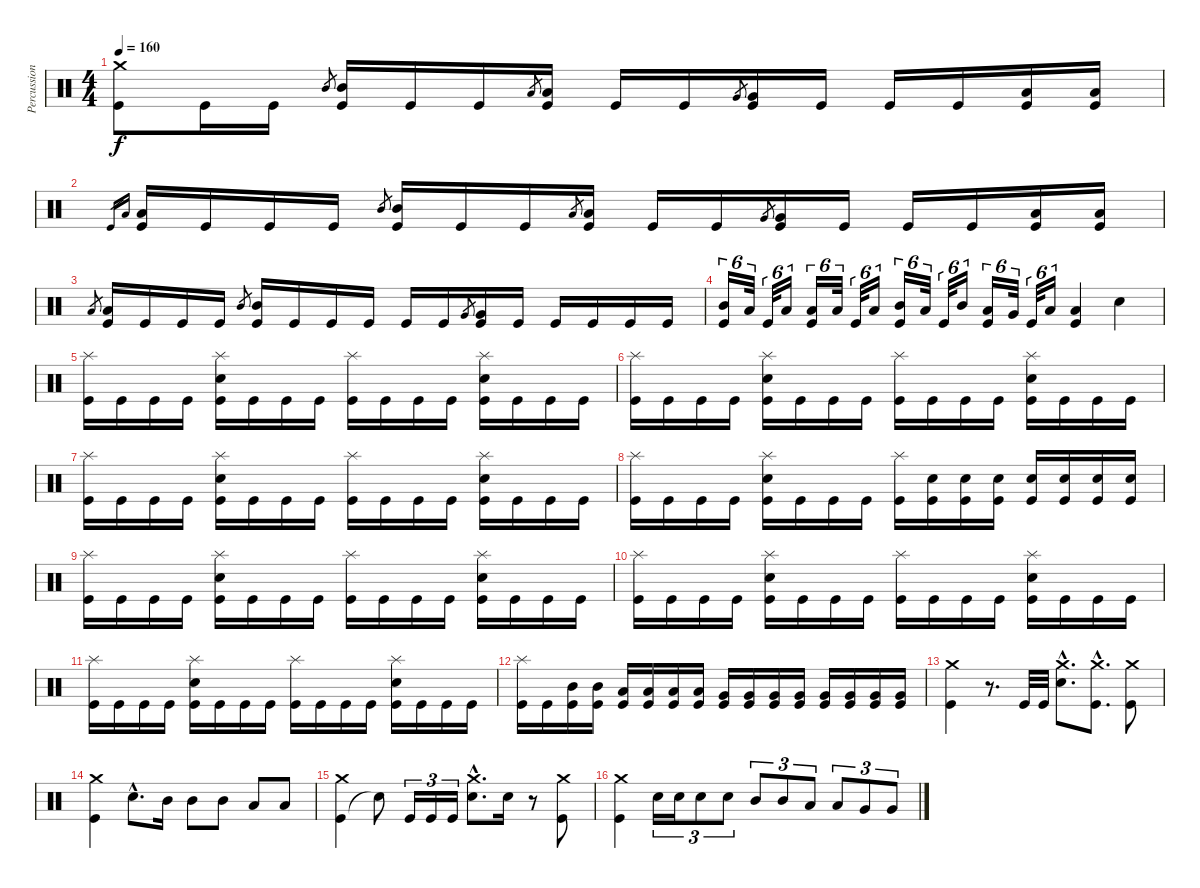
\track ("Percussions" "Percussion") {instrument percussion}
\staff {score}
\articulation defaults
\ts (4 4)
\tempo 160
\clef neutral
\ks c
("Kick (hit)" "Crash medium (hit)").8{dy f} "Kick (hit)".16 "Kick (hit)".16 "Mid Tom (hit)".8{gr} ("Kick (hit)" "Mid Tom (hit)").16 "Kick (hit)".16 "Kick (hit)".16 "Low Tom (hit)".8{gr} ("Kick (hit)" "Low Tom (hit)").16 "Kick (hit)".16 "Kick (hit)".16 "Very Low Tom (hit)".8{gr} ("Kick (hit)" "Very Low Tom (hit)").16 "Kick (hit)".16 "Kick (hit)".16 "Kick (hit)".16 ("Kick (hit)" "Low Floor Tom (hit)").16 ("Kick (hit)" "Low Floor Tom (hit)").16 |
"Kick (hit)".16{gr} "Low Floor Tom (hit)".16{gr} ("Kick (hit)" "Low Floor Tom (hit)").16 "Kick (hit)".16 "Kick (hit)".16 "Kick (hit)".16 "Mid Tom (hit)".8{gr} ("Kick (hit)" "Mid Tom (hit)").16 "Kick (hit)".16 "Kick (hit)".16 "Low Tom (hit)".8{gr} ("Kick (hit)" "Low Tom (hit)").16 "Kick (hit)".16 "Kick (hit)".16 "Very Low Tom (hit)".8{gr} ("Kick (hit)" "Very Low Tom (hit)").16 "Kick (hit)".16 "Kick (hit)".16 "Kick (hit)".16 ("Kick (hit)" "Low Floor Tom (hit)").16 ("Kick (hit)" "Low Floor Tom (hit)").16 |
"Low Floor Tom (hit)".8{gr} ("Kick (hit)" "Low Floor Tom (hit)").16 "Kick (hit)".16 "Kick (hit)".16 "Kick (hit)".16 "Mid Tom (hit)".8{gr} ("Kick (hit)" "Mid Tom (hit)").16 "Kick (hit)".16 "Kick (hit)".16 "Kick (hit)".16 "Kick (hit)".16 "Kick (hit)".16 "Very Low Tom (hit)".8{gr} ("Kick (hit)" "Very Low Tom (hit)").16 "Kick (hit)".16 "Kick (hit)".16 "Kick (hit)".16 "Kick (hit)".16 "Kick (hit)".16 |
("Kick (hit)" "Mid Tom (hit)").16{tu (6 4)} "Low Tom (hit)".32{tu (6 4)} "Kick (hit)".32{tu (6 4)} "Low Tom (hit)".16{tu (6 4)} ("Kick (hit)" "Low Tom (hit)").16{tu (6 4)} "Low Tom (hit)".32{tu (6 4)} "Kick (hit)".32{tu (6 4)} "Low Tom (hit)".16{tu (6 4)} ("Kick (hit)" "Mid Tom (hit)").16{tu (6 4)} "Low Tom (hit)".32{tu (6 4)} "Kick (hit)".32{tu (6 4)} "Mid Tom (hit)".16{tu (6 4)} ("Kick (hit)" "Low Tom (hit)").16{tu (6 4)} "Very Low Tom (hit)".32{tu (6 4)} "Kick (hit)".32{tu (6 4)} "Low Floor Tom (hit)".16{tu (6 4)} ("Kick (hit)" "Low Floor Tom (hit)").4 "Electric Snare (hit)".4 |
("Kick (hit)" "Splash (hit)").16 "Kick (hit)".16 "Kick (hit)".16 "Kick (hit)".16 ("Kick (hit)" "Electric Snare (hit)" "Splash (hit)").16 "Kick (hit)".16 "Kick (hit)".16 "Kick (hit)".16 ("Kick (hit)" "Splash (hit)").16 "Kick (hit)".16 "Kick (hit)".16 "Kick (hit)".16 ("Kick (hit)" "Electric Snare (hit)" "Splash (hit)").16 "Kick (hit)".16 "Kick (hit)".16 "Kick (hit)".16 |
("Kick (hit)" "Splash (hit)").16 "Kick (hit)".16 "Kick (hit)".16 "Kick (hit)".16 ("Kick (hit)" "Electric Snare (hit)" "Splash (hit)").16 "Kick (hit)".16 "Kick (hit)".16 "Kick (hit)".16 ("Kick (hit)" "Splash (hit)").16 "Kick (hit)".16 "Kick (hit)".16 "Kick (hit)".16 ("Kick (hit)" "Electric Snare (hit)" "Splash (hit)").16 "Kick (hit)".16 "Kick (hit)".16 "Kick (hit)".16 |
("Kick (hit)" "Splash (hit)").16 "Kick (hit)".16 "Kick (hit)".16 "Kick (hit)".16 ("Kick (hit)" "Electric Snare (hit)" "Splash (hit)").16 "Kick (hit)".16 "Kick (hit)".16 "Kick (hit)".16 ("Kick (hit)" "Splash (hit)").16 "Kick (hit)".16 "Kick (hit)".16 "Kick (hit)".16 ("Kick (hit)" "Electric Snare (hit)" "Splash (hit)").16 "Kick (hit)".16 "Kick (hit)".16 "Kick (hit)".16 |
("Kick (hit)" "Splash (hit)").16 "Kick (hit)".16 "Kick (hit)".16 "Kick (hit)".16 ("Kick (hit)" "Electric Snare (hit)" "Splash (hit)").16 "Kick (hit)".16 "Kick (hit)".16 "Kick (hit)".16 ("Kick (hit)" "Splash (hit)").16 ("Kick (hit)" "Electric Snare (hit)").16 ("Kick (hit)" "Electric Snare (hit)").16 ("Kick (hit)" "Electric Snare (hit)").16 ("Kick (hit)" "Electric Snare (hit)").16 ("Kick (hit)" "Electric Snare (hit)").16 ("Kick (hit)" "Electric Snare (hit)").16 ("Kick (hit)" "Electric Snare (hit)").16 |
("Kick (hit)" "Splash (hit)").16 "Kick (hit)".16 "Kick (hit)".16 "Kick (hit)".16 ("Kick (hit)" "Electric Snare (hit)" "Splash (hit)").16 "Kick (hit)".16 "Kick (hit)".16 "Kick (hit)".16 ("Kick (hit)" "Splash (hit)").16 "Kick (hit)".16 "Kick (hit)".16 "Kick (hit)".16 ("Kick (hit)" "Electric Snare (hit)" "Splash (hit)").16 "Kick (hit)".16 "Kick (hit)".16 "Kick (hit)".16 |
("Kick (hit)" "Splash (hit)").16 "Kick (hit)".16 "Kick (hit)".16 "Kick (hit)".16 ("Kick (hit)" "Electric Snare (hit)" "Splash (hit)").16 "Kick (hit)".16 "Kick (hit)".16 "Kick (hit)".16 ("Kick (hit)" "Splash (hit)").16 "Kick (hit)".16 "Kick (hit)".16 "Kick (hit)".16 ("Kick (hit)" "Electric Snare (hit)" "Splash (hit)").16 "Kick (hit)".16 "Kick (hit)".16 "Kick (hit)".16 |
("Kick (hit)" "Splash (hit)").16 "Kick (hit)".16 "Kick (hit)".16 "Kick (hit)".16 ("Kick (hit)" "Electric Snare (hit)" "Splash (hit)").16 "Kick (hit)".16 "Kick (hit)".16 "Kick (hit)".16 ("Kick (hit)" "Splash (hit)").16 "Kick (hit)".16 "Kick (hit)".16 "Kick (hit)".16 ("Kick (hit)" "Electric Snare (hit)" "Splash (hit)").16 "Kick (hit)".16 "Kick (hit)".16 "Kick (hit)".16 |
("Kick (hit)" "Splash (hit)").16 "Kick (hit)".16 ("Kick (hit)" "Mid Tom (hit)").16 ("Kick (hit)" "Mid Tom (hit)").16 ("Kick (hit)" "Low Tom (hit)").16 ("Kick (hit)" "Low Tom (hit)").16 ("Kick (hit)" "Low Tom (hit)").16 ("Kick (hit)" "Low Tom (hit)").16 ("Kick (hit)" "Very Low Tom (hit)").16 ("Kick (hit)" "Very Low Tom (hit)").16 ("Kick (hit)" "Very Low Tom (hit)").16 ("Kick (hit)" "Very Low Tom (hit)").16 ("Kick (hit)" "Very Low Tom (hit)").16 ("Kick (hit)" "Very Low Tom (hit)").16 ("Kick (hit)" "Very Low Tom (hit)").16 ("Kick (hit)" "Very Low Tom (hit)").16 |
("Kick (hit)" "Crash medium (hit)").4 r.8{d} "Kick (hit)".32 "Kick (hit)".32 ("Electric Snare (hit)"{hac} "Crash medium (hit)"{hac}).8{d} ("Kick (hit)"{hac} "Crash medium (hit)"{hac}).8{d} ("Kick (hit)" "Crash medium (hit)").8 |
("Kick (hit)" "Crash medium (hit)").4 "Electric Snare (hit)"{hac}.8{d} "Mid Tom (hit)".16 "Mid Tom (hit)".8 "Mid Tom (hit)".8 "Low Tom (hit)".8 "Low Tom (hit)".8 |
("Kick (hit)" "Crash medium (hit)").4 "Snare (hit)"{t}.8 "Kick (hit)".16{tu (3 2)} "Kick (hit)".16{tu (3 2)} "Kick (hit)".16{tu (3 2)} ("Electric Snare (hit)"{hac} "Crash medium (hit)"{hac}).8{d} "Electric Snare (hit)".16 r.8 ("Kick (hit)" "Crash medium (hit)").8 |
("Kick (hit)" "Crash medium (hit)").4 "Electric Snare (hit)".16{tu (3 2)} "Electric Snare (hit)".16{tu (3 2)} "Electric Snare (hit)".8{tu (3 2)} "Electric Snare (hit)".8{tu (3 2)} "Mid Tom (hit)".8{tu (3 2)} "Mid Tom (hit)".8{tu (3 2)} "Low Tom (hit)".8{tu (3 2)} "Low Tom (hit)".8{tu (3 2)} "Very Low Tom (hit)".8{tu (3 2)} "Very Low Tom (hit)".8{tu (3 2)}
